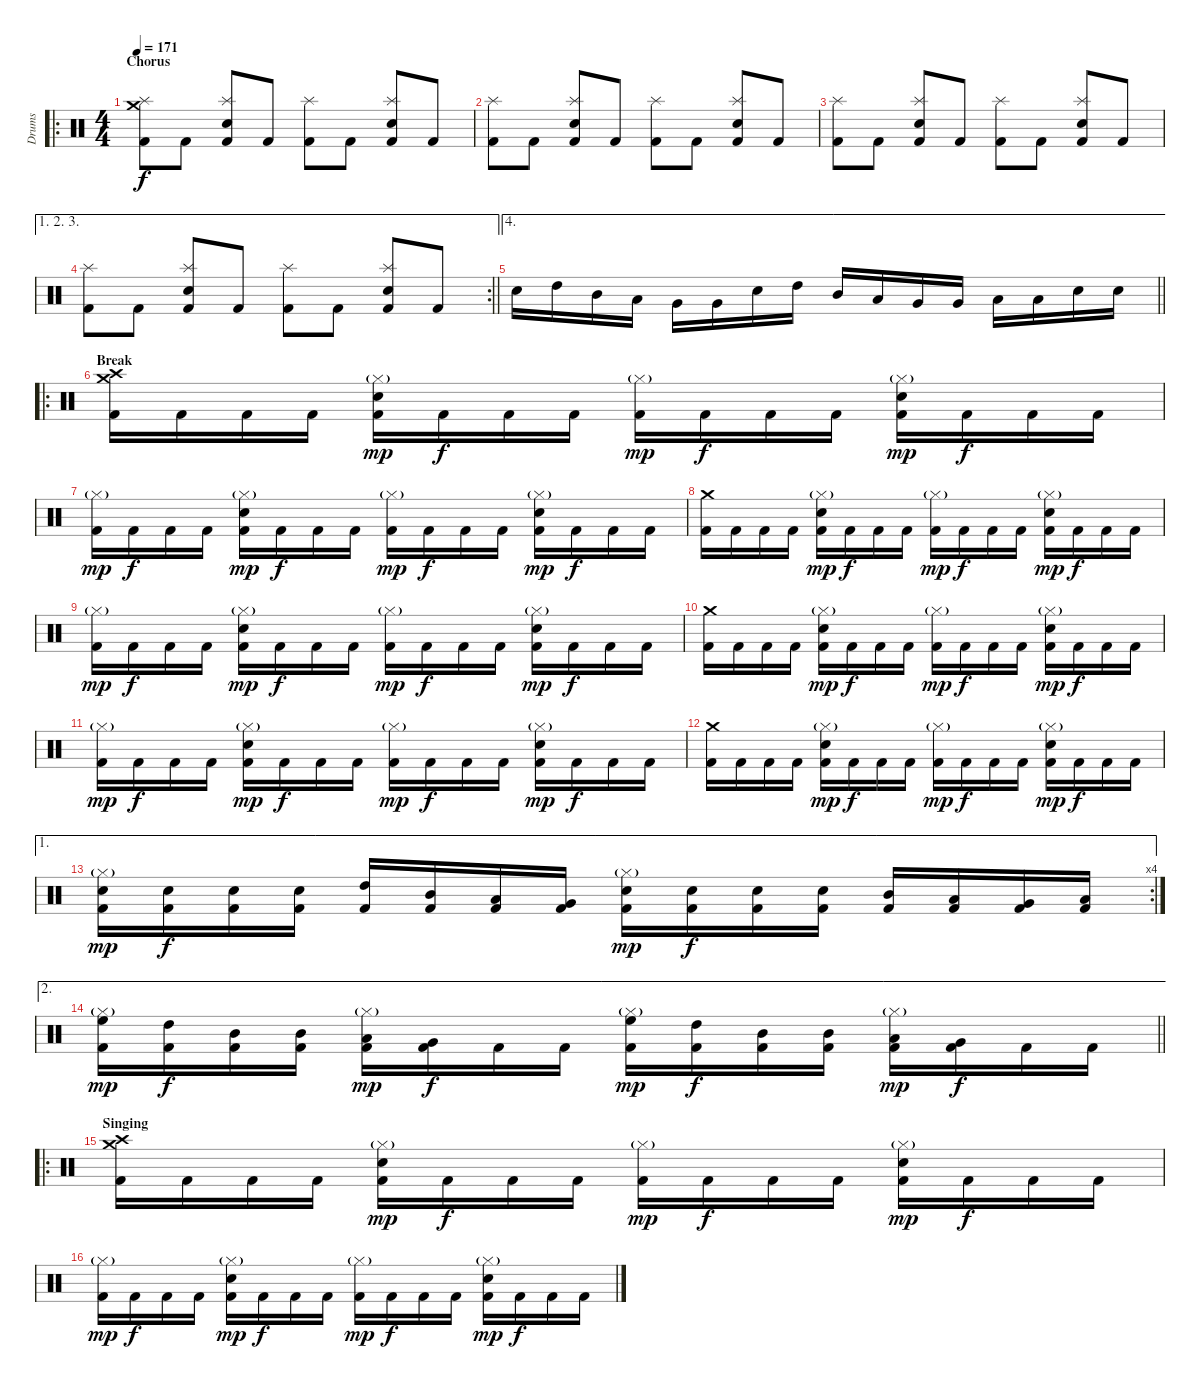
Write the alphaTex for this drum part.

\track ("Drums" "Drums") {instrument percussion}
\staff {score}
\articulation defaults
\ro
\ts (4 4)
\section ("" "Chorus")
\tempo 171
\clef neutral
\ks c
("Kick (hit) 2" "Splash (hit)" "Crash medium (hit)").8{dy f} "Kick (hit) 2".8 ("Kick (hit) 2" "Snare (hit) 2" "Splash (hit)").8 "Kick (hit) 2".8 ("Kick (hit) 2" "Splash (hit)").8 "Kick (hit) 2".8 ("Kick (hit) 2" "Snare (hit) 2" "Splash (hit)").8 "Kick (hit) 2".8 |
("Kick (hit) 2" "Splash (hit)").8 "Kick (hit) 2".8 ("Kick (hit) 2" "Snare (hit) 2" "Splash (hit)").8 "Kick (hit) 2".8 ("Kick (hit) 2" "Splash (hit)").8 "Kick (hit) 2".8 ("Kick (hit) 2" "Snare (hit) 2" "Splash (hit)").8 "Kick (hit) 2".8 |
("Kick (hit) 2" "Splash (hit)").8 "Kick (hit) 2".8 ("Kick (hit) 2" "Snare (hit) 2" "Splash (hit)").8 "Kick (hit) 2".8 ("Kick (hit) 2" "Splash (hit)").8 "Kick (hit) 2".8 ("Kick (hit) 2" "Snare (hit) 2" "Splash (hit)").8 "Kick (hit) 2".8 |
\ae (1 2 3)
\rc 2
\barLineRight lightlight
("Kick (hit) 2" "Splash (hit)").8 "Kick (hit) 2".8 ("Kick (hit) 2" "Snare (hit) 2" "Splash (hit)").8 "Kick (hit) 2".8 ("Kick (hit) 2" "Splash (hit)").8 "Kick (hit) 2".8 ("Kick (hit) 2" "Snare (hit) 2" "Splash (hit)").8 "Kick (hit) 2".8 |
\ae 4
\barLineRight lightlight "Snare (hit) 2".16 "High Tom (hit)".16 "Mid Tom (hit)".16 "Low Tom (hit)".16 "Very Low Tom (hit)".16 "Very Low Tom (hit)".16 "Snare (hit) 2".16 "High Tom (hit)".16 "Mid Tom (hit)".16 "Low Tom (hit)".16 "Very Low Tom (hit)".16 "Very Low Tom (hit)".16 "Low Floor Tom (hit)".16 "Low Floor Tom (hit)".16 "Snare (hit) 2".16 "Snare (hit) 2".16
|
\ro
\section ("" "Break")
("Kick (hit) 2" "Crash medium (hit)" "Crash high (hit)").16 "Kick (hit) 2".16 "Kick (hit) 2".16 "Kick (hit) 2".16 ("Kick (hit) 2" "Snare (hit) 2" "Hi-Hat (closed)"{g}).16{dy mp} "Kick (hit) 2".16{dy f} "Kick (hit) 2".16 "Kick (hit) 2".16 ("Kick (hit) 2" "Hi-Hat (closed)"{g}).16{dy mp} "Kick (hit) 2".16{dy f} "Kick (hit) 2".16 "Kick (hit) 2".16 ("Kick (hit) 2" "Snare (hit) 2" "Hi-Hat (closed)"{g}).16{dy mp} "Kick (hit) 2".16{dy f} "Kick (hit) 2".16 "Kick (hit) 2".16 |
("Kick (hit) 2" "Hi-Hat (closed)"{g}).16{dy mp} "Kick (hit) 2".16{dy f} "Kick (hit) 2".16 "Kick (hit) 2".16 ("Kick (hit) 2" "Snare (hit) 2" "Hi-Hat (closed)"{g}).16{dy mp} "Kick (hit) 2".16{dy f} "Kick (hit) 2".16 "Kick (hit) 2".16 ("Kick (hit) 2" "Hi-Hat (closed)"{g}).16{dy mp} "Kick (hit) 2".16{dy f} "Kick (hit) 2".16 "Kick (hit) 2".16 ("Kick (hit) 2" "Snare (hit) 2" "Hi-Hat (closed)"{g}).16{dy mp} "Kick (hit) 2".16{dy f} "Kick (hit) 2".16 "Kick (hit) 2".16 |
("Kick (hit) 2" "Crash medium (hit)").16 "Kick (hit) 2".16 "Kick (hit) 2".16 "Kick (hit) 2".16 ("Kick (hit) 2" "Snare (hit) 2" "Hi-Hat (closed)"{g}).16{dy mp} "Kick (hit) 2".16{dy f} "Kick (hit) 2".16 "Kick (hit) 2".16 ("Kick (hit) 2" "Hi-Hat (closed)"{g}).16{dy mp} "Kick (hit) 2".16{dy f} "Kick (hit) 2".16 "Kick (hit) 2".16 ("Kick (hit) 2" "Snare (hit) 2" "Hi-Hat (closed)"{g}).16{dy mp} "Kick (hit) 2".16{dy f} "Kick (hit) 2".16 "Kick (hit) 2".16 |
("Kick (hit) 2" "Hi-Hat (closed)"{g}).16{dy mp} "Kick (hit) 2".16{dy f} "Kick (hit) 2".16 "Kick (hit) 2".16 ("Kick (hit) 2" "Snare (hit) 2" "Hi-Hat (closed)"{g}).16{dy mp} "Kick (hit) 2".16{dy f} "Kick (hit) 2".16 "Kick (hit) 2".16 ("Kick (hit) 2" "Hi-Hat (closed)"{g}).16{dy mp} "Kick (hit) 2".16{dy f} "Kick (hit) 2".16 "Kick (hit) 2".16 ("Kick (hit) 2" "Snare (hit) 2" "Hi-Hat (closed)"{g}).16{dy mp} "Kick (hit) 2".16{dy f} "Kick (hit) 2".16 "Kick (hit) 2".16 |
("Kick (hit) 2" "Crash medium (hit)").16 "Kick (hit) 2".16 "Kick (hit) 2".16 "Kick (hit) 2".16 ("Kick (hit) 2" "Snare (hit) 2" "Hi-Hat (closed)"{g}).16{dy mp} "Kick (hit) 2".16{dy f} "Kick (hit) 2".16 "Kick (hit) 2".16 ("Kick (hit) 2" "Hi-Hat (closed)"{g}).16{dy mp} "Kick (hit) 2".16{dy f} "Kick (hit) 2".16 "Kick (hit) 2".16 ("Kick (hit) 2" "Snare (hit) 2" "Hi-Hat (closed)"{g}).16{dy mp} "Kick (hit) 2".16{dy f} "Kick (hit) 2".16 "Kick (hit) 2".16 |
("Kick (hit) 2" "Hi-Hat (closed)"{g}).16{dy mp} "Kick (hit) 2".16{dy f} "Kick (hit) 2".16 "Kick (hit) 2".16 ("Kick (hit) 2" "Snare (hit) 2" "Hi-Hat (closed)"{g}).16{dy mp} "Kick (hit) 2".16{dy f} "Kick (hit) 2".16 "Kick (hit) 2".16 ("Kick (hit) 2" "Hi-Hat (closed)"{g}).16{dy mp} "Kick (hit) 2".16{dy f} "Kick (hit) 2".16 "Kick (hit) 2".16 ("Kick (hit) 2" "Snare (hit) 2" "Hi-Hat (closed)"{g}).16{dy mp} "Kick (hit) 2".16{dy f} "Kick (hit) 2".16 "Kick (hit) 2".16 |
("Kick (hit) 2" "Crash medium (hit)").16 "Kick (hit) 2".16 "Kick (hit) 2".16 "Kick (hit) 2".16 ("Kick (hit) 2" "Snare (hit) 2" "Hi-Hat (closed)"{g}).16{dy mp} "Kick (hit) 2".16{dy f} "Kick (hit) 2".16 "Kick (hit) 2".16 ("Kick (hit) 2" "Hi-Hat (closed)"{g}).16{dy mp} "Kick (hit) 2".16{dy f} "Kick (hit) 2".16 "Kick (hit) 2".16 ("Kick (hit) 2" "Snare (hit) 2" "Hi-Hat (closed)"{g}).16{dy mp} "Kick (hit) 2".16{dy f} "Kick (hit) 2".16 "Kick (hit) 2".16 |
\ae 1
\rc 4
("Kick (hit) 2" "Snare (hit) 2" "Hi-Hat (closed)"{g}).16{dy mp} ("Kick (hit) 2" "Snare (hit) 2").16{dy f} ("Kick (hit) 2" "Snare (hit) 2").16 ("Kick (hit) 2" "Snare (hit) 2").16 ("Kick (hit) 2" "High Tom (hit)").16 ("Kick (hit) 2" "Mid Tom (hit)").16 ("Kick (hit) 2" "Low Tom (hit)").16 ("Kick (hit) 2" "Very Low Tom (hit)").16 ("Kick (hit) 2" "Snare (hit) 2" "Hi-Hat (closed)"{g}).16{dy mp} ("Kick (hit) 2" "Snare (hit) 2").16{dy f} ("Kick (hit) 2" "Snare (hit) 2").16 ("Kick (hit) 2" "Snare (hit) 2").16 ("Kick (hit) 2" "Mid Tom (hit)").16 ("Kick (hit) 2" "Low Tom (hit)").16 ("Kick (hit) 2" "Very Low Tom (hit)").16 ("Kick (hit) 2" "Low Floor Tom (hit)").16 |
\ae 2
\barLineRight lightlight
("Kick (hit) 2" "High Floor Tom (hit)" "Hi-Hat (closed)"{g}).16{dy mp} ("Kick (hit) 2" "High Tom (hit)").16{dy f} ("Kick (hit) 2" "Mid Tom (hit)").16 ("Kick (hit) 2" "Mid Tom (hit)").16 ("Kick (hit) 2" "Low Tom (hit)" "Hi-Hat (closed)"{g}).16{dy mp} ("Kick (hit) 2" "Very Low Tom (hit)").16{dy f} "Kick (hit) 2".16 "Kick (hit) 2".16 ("Kick (hit) 2" "High Floor Tom (hit)" "Hi-Hat (closed)"{g}).16{dy mp} ("Kick (hit) 2" "High Tom (hit)").16{dy f} ("Kick (hit) 2" "Mid Tom (hit)").16 ("Kick (hit) 2" "Mid Tom (hit)").16 ("Kick (hit) 2" "Low Tom (hit)" "Hi-Hat (closed)"{g}).16{dy mp} ("Kick (hit) 2" "Very Low Tom (hit)").16{dy f} "Kick (hit) 2".16 "Kick (hit) 2".16 |
\ro
\section ("" "Singing")
("Kick (hit) 2" "Crash medium (hit)" "Crash high (hit)").16 "Kick (hit) 2".16 "Kick (hit) 2".16 "Kick (hit) 2".16 ("Kick (hit) 2" "Snare (hit) 2" "Hi-Hat (closed)"{g}).16{dy mp} "Kick (hit) 2".16{dy f} "Kick (hit) 2".16 "Kick (hit) 2".16 ("Kick (hit) 2" "Hi-Hat (closed)"{g}).16{dy mp} "Kick (hit) 2".16{dy f} "Kick (hit) 2".16 "Kick (hit) 2".16 ("Kick (hit) 2" "Snare (hit) 2" "Hi-Hat (closed)"{g}).16{dy mp} "Kick (hit) 2".16{dy f} "Kick (hit) 2".16 "Kick (hit) 2".16 |
("Kick (hit) 2" "Hi-Hat (closed)"{g}).16{dy mp} "Kick (hit) 2".16{dy f} "Kick (hit) 2".16 "Kick (hit) 2".16 ("Kick (hit) 2" "Snare (hit) 2" "Hi-Hat (closed)"{g}).16{dy mp} "Kick (hit) 2".16{dy f} "Kick (hit) 2".16 "Kick (hit) 2".16 ("Kick (hit) 2" "Hi-Hat (closed)"{g}).16{dy mp} "Kick (hit) 2".16{dy f} "Kick (hit) 2".16 "Kick (hit) 2".16 ("Kick (hit) 2" "Snare (hit) 2" "Hi-Hat (closed)"{g}).16{dy mp} "Kick (hit) 2".16{dy f} "Kick (hit) 2".16 "Kick (hit) 2".16
